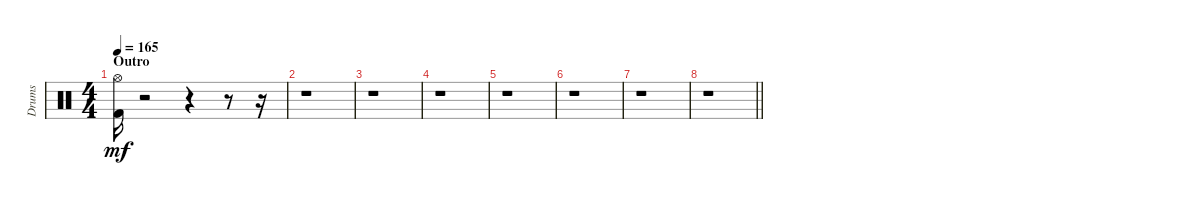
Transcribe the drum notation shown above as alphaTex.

\track ("Drums" "Drums") {instrument percussion}
\staff {score}
\articulation defaults
\ts (4 4)
\section ("" "Outro")
\tempo 165
\clef neutral
\ks c
("Kick (hit) 2" "Hi-Hat (open)").16{dy mf} r.2 r.4 r.8 r.16 |
r.1 |
r.1 |
r.1 |
r.1 |
r.1 |
r.1 |
\barLineRight lightlight
r.1
